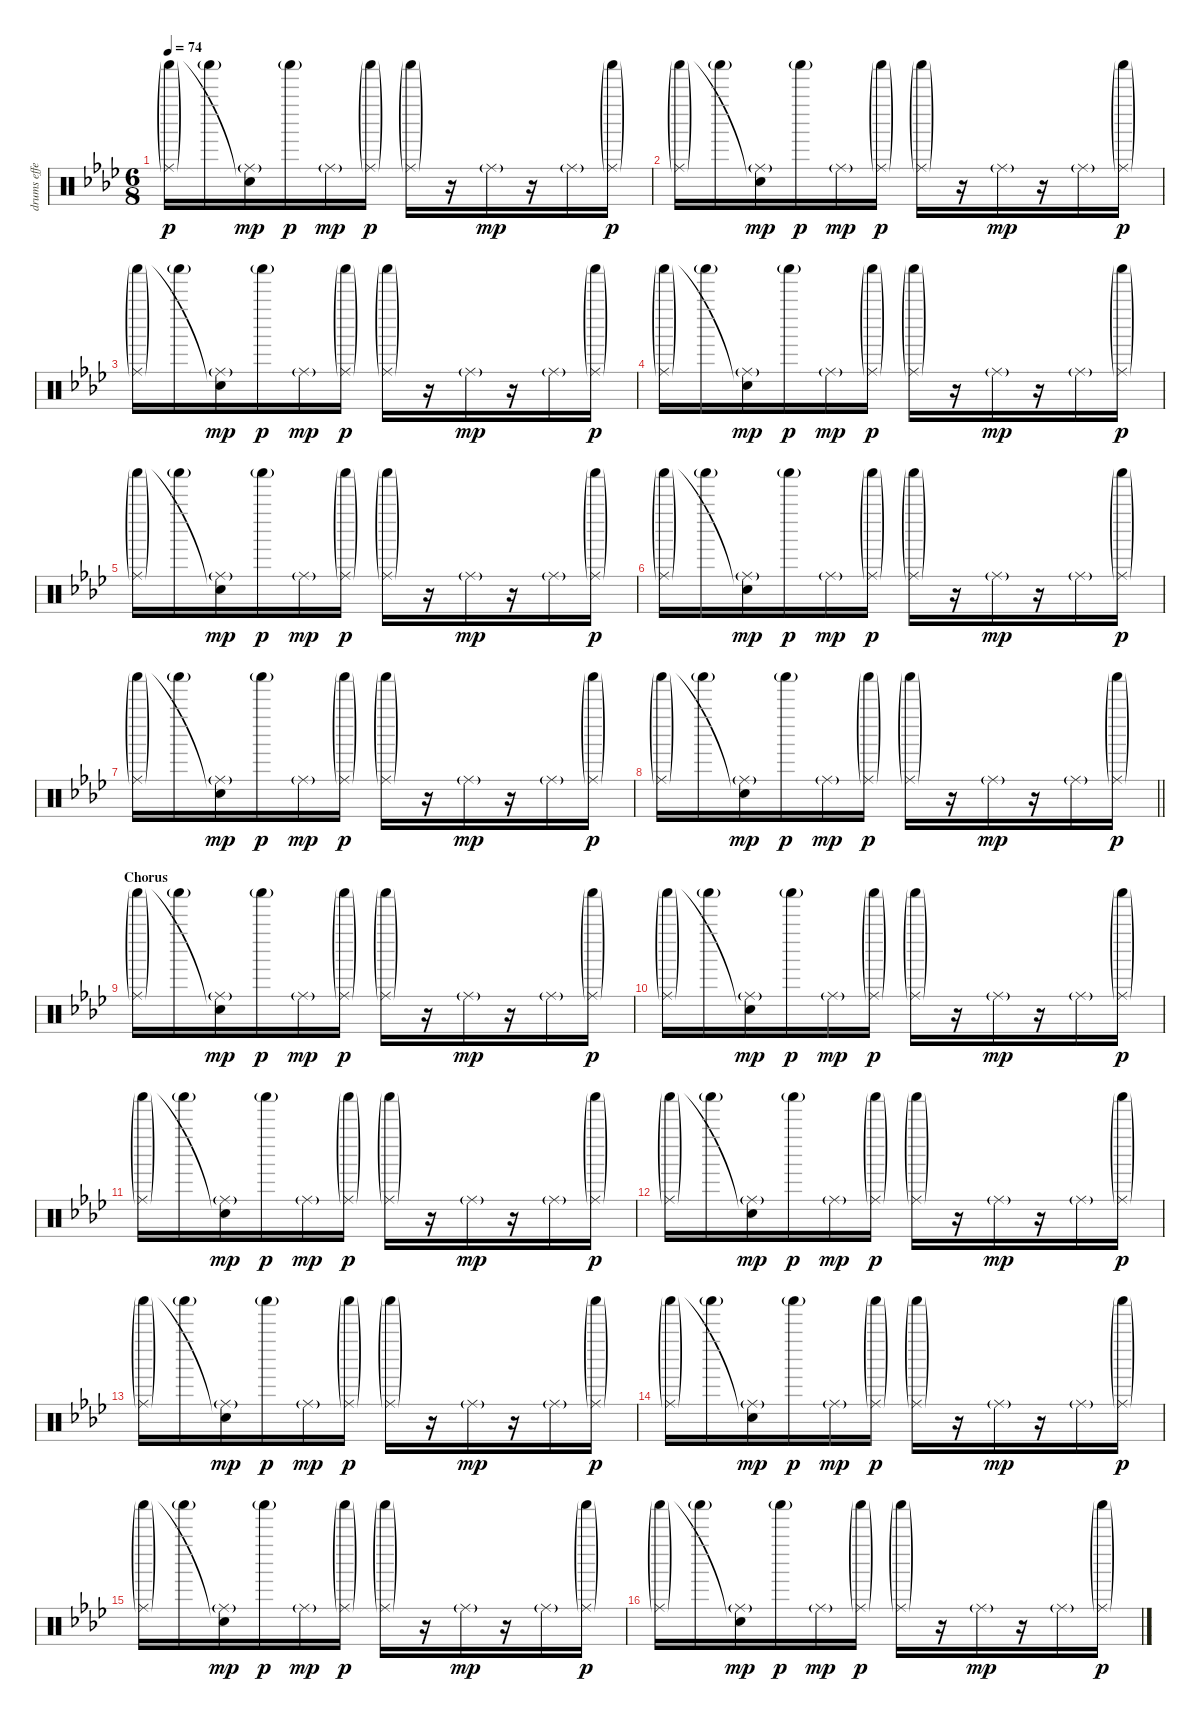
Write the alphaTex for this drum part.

\track ("drums effect" "drums effe") {instrument percussion}
\staff {score}
\articulation defaults
\ts (6 8)
\tempo 74
\clef neutral
\ks ab
("Ride (middle)"{g} "Shaker (hit)"{g}).16{dy p} "Shaker (hit)"{g}.16 ("Ride (middle)"{g} "Snare (hit)"{t}).16{dy mp} "Shaker (hit)"{g}.16{dy p} "Ride (middle)"{g}.16{dy mp} ("Ride (middle)"{g} "Shaker (hit)"{g}).16{dy p} ("Ride (middle)"{g} "Shaker (hit)"{g}).16 r.16 "Ride (middle)"{g}.16{dy mp} r.16 "Ride (middle)"{g}.16 ("Ride (middle)"{g} "Shaker (hit)"{g}).16{dy p} |
("Ride (middle)"{g} "Shaker (hit)"{g}).16 "Shaker (hit)"{g}.16 ("Ride (middle)"{g} "Snare (hit)"{t}).16{dy mp} "Shaker (hit)"{g}.16{dy p} "Ride (middle)"{g}.16{dy mp} ("Ride (middle)"{g} "Shaker (hit)"{g}).16{dy p} ("Ride (middle)"{g} "Shaker (hit)"{g}).16 r.16 "Ride (middle)"{g}.16{dy mp} r.16 "Ride (middle)"{g}.16 ("Ride (middle)"{g} "Shaker (hit)"{g}).16{dy p} |
("Ride (middle)"{g} "Shaker (hit)"{g}).16 "Shaker (hit)"{g}.16 ("Ride (middle)"{g} "Snare (hit)"{t}).16{dy mp} "Shaker (hit)"{g}.16{dy p} "Ride (middle)"{g}.16{dy mp} ("Ride (middle)"{g} "Shaker (hit)"{g}).16{dy p} ("Ride (middle)"{g} "Shaker (hit)"{g}).16 r.16 "Ride (middle)"{g}.16{dy mp} r.16 "Ride (middle)"{g}.16 ("Ride (middle)"{g} "Shaker (hit)"{g}).16{dy p} |
("Ride (middle)"{g} "Shaker (hit)"{g}).16 "Shaker (hit)"{g}.16 ("Ride (middle)"{g} "Snare (hit)"{t}).16{dy mp} "Shaker (hit)"{g}.16{dy p} "Ride (middle)"{g}.16{dy mp} ("Ride (middle)"{g} "Shaker (hit)"{g}).16{dy p} ("Ride (middle)"{g} "Shaker (hit)"{g}).16 r.16 "Ride (middle)"{g}.16{dy mp} r.16 "Ride (middle)"{g}.16 ("Ride (middle)"{g} "Shaker (hit)"{g}).16{dy p} |
("Ride (middle)"{g} "Shaker (hit)"{g}).16 "Shaker (hit)"{g}.16 ("Ride (middle)"{g} "Snare (hit)"{t}).16{dy mp} "Shaker (hit)"{g}.16{dy p} "Ride (middle)"{g}.16{dy mp} ("Ride (middle)"{g} "Shaker (hit)"{g}).16{dy p} ("Ride (middle)"{g} "Shaker (hit)"{g}).16 r.16 "Ride (middle)"{g}.16{dy mp} r.16 "Ride (middle)"{g}.16 ("Ride (middle)"{g} "Shaker (hit)"{g}).16{dy p} |
("Ride (middle)"{g} "Shaker (hit)"{g}).16 "Shaker (hit)"{g}.16 ("Ride (middle)"{g} "Snare (hit)"{t}).16{dy mp} "Shaker (hit)"{g}.16{dy p} "Ride (middle)"{g}.16{dy mp} ("Ride (middle)"{g} "Shaker (hit)"{g}).16{dy p} ("Ride (middle)"{g} "Shaker (hit)"{g}).16 r.16 "Ride (middle)"{g}.16{dy mp} r.16 "Ride (middle)"{g}.16 ("Ride (middle)"{g} "Shaker (hit)"{g}).16{dy p} |
("Ride (middle)"{g} "Shaker (hit)"{g}).16 "Shaker (hit)"{g}.16 ("Ride (middle)"{g} "Snare (hit)"{t}).16{dy mp} "Shaker (hit)"{g}.16{dy p} "Ride (middle)"{g}.16{dy mp} ("Ride (middle)"{g} "Shaker (hit)"{g}).16{dy p} ("Ride (middle)"{g} "Shaker (hit)"{g}).16 r.16 "Ride (middle)"{g}.16{dy mp} r.16 "Ride (middle)"{g}.16 ("Ride (middle)"{g} "Shaker (hit)"{g}).16{dy p} |
\barLineRight lightlight
("Ride (middle)"{g} "Shaker (hit)"{g}).16 "Shaker (hit)"{g}.16 ("Ride (middle)"{g} "Snare (hit)"{t}).16{dy mp} "Shaker (hit)"{g}.16{dy p} "Ride (middle)"{g}.16{dy mp} ("Ride (middle)"{g} "Shaker (hit)"{g}).16{dy p} ("Ride (middle)"{g} "Shaker (hit)"{g}).16 r.16 "Ride (middle)"{g}.16{dy mp} r.16 "Ride (middle)"{g}.16 ("Ride (middle)"{g} "Shaker (hit)"{g}).16{dy p} |
\section ("" "Chorus")
("Ride (middle)"{g} "Shaker (hit)"{g}).16 "Shaker (hit)"{g}.16 ("Ride (middle)"{g} "Snare (hit)"{t}).16{dy mp} "Shaker (hit)"{g}.16{dy p} "Ride (middle)"{g}.16{dy mp} ("Ride (middle)"{g} "Shaker (hit)"{g}).16{dy p} ("Ride (middle)"{g} "Shaker (hit)"{g}).16 r.16 "Ride (middle)"{g}.16{dy mp} r.16 "Ride (middle)"{g}.16 ("Ride (middle)"{g} "Shaker (hit)"{g}).16{dy p} |
("Ride (middle)"{g} "Shaker (hit)"{g}).16 "Shaker (hit)"{g}.16 ("Ride (middle)"{g} "Snare (hit)"{t}).16{dy mp} "Shaker (hit)"{g}.16{dy p} "Ride (middle)"{g}.16{dy mp} ("Ride (middle)"{g} "Shaker (hit)"{g}).16{dy p} ("Ride (middle)"{g} "Shaker (hit)"{g}).16 r.16 "Ride (middle)"{g}.16{dy mp} r.16 "Ride (middle)"{g}.16 ("Ride (middle)"{g} "Shaker (hit)"{g}).16{dy p} |
("Ride (middle)"{g} "Shaker (hit)"{g}).16 "Shaker (hit)"{g}.16 ("Ride (middle)"{g} "Snare (hit)"{t}).16{dy mp} "Shaker (hit)"{g}.16{dy p} "Ride (middle)"{g}.16{dy mp} ("Ride (middle)"{g} "Shaker (hit)"{g}).16{dy p} ("Ride (middle)"{g} "Shaker (hit)"{g}).16 r.16 "Ride (middle)"{g}.16{dy mp} r.16 "Ride (middle)"{g}.16 ("Ride (middle)"{g} "Shaker (hit)"{g}).16{dy p} |
("Ride (middle)"{g} "Shaker (hit)"{g}).16 "Shaker (hit)"{g}.16 ("Ride (middle)"{g} "Snare (hit)"{t}).16{dy mp} "Shaker (hit)"{g}.16{dy p} "Ride (middle)"{g}.16{dy mp} ("Ride (middle)"{g} "Shaker (hit)"{g}).16{dy p} ("Ride (middle)"{g} "Shaker (hit)"{g}).16 r.16 "Ride (middle)"{g}.16{dy mp} r.16 "Ride (middle)"{g}.16 ("Ride (middle)"{g} "Shaker (hit)"{g}).16{dy p} |
("Ride (middle)"{g} "Shaker (hit)"{g}).16 "Shaker (hit)"{g}.16 ("Ride (middle)"{g} "Snare (hit)"{t}).16{dy mp} "Shaker (hit)"{g}.16{dy p} "Ride (middle)"{g}.16{dy mp} ("Ride (middle)"{g} "Shaker (hit)"{g}).16{dy p} ("Ride (middle)"{g} "Shaker (hit)"{g}).16 r.16 "Ride (middle)"{g}.16{dy mp} r.16 "Ride (middle)"{g}.16 ("Ride (middle)"{g} "Shaker (hit)"{g}).16{dy p} |
("Ride (middle)"{g} "Shaker (hit)"{g}).16 "Shaker (hit)"{g}.16 ("Ride (middle)"{g} "Snare (hit)"{t}).16{dy mp} "Shaker (hit)"{g}.16{dy p} "Ride (middle)"{g}.16{dy mp} ("Ride (middle)"{g} "Shaker (hit)"{g}).16{dy p} ("Ride (middle)"{g} "Shaker (hit)"{g}).16 r.16 "Ride (middle)"{g}.16{dy mp} r.16 "Ride (middle)"{g}.16 ("Ride (middle)"{g} "Shaker (hit)"{g}).16{dy p} |
("Ride (middle)"{g} "Shaker (hit)"{g}).16 "Shaker (hit)"{g}.16 ("Ride (middle)"{g} "Snare (hit)"{t}).16{dy mp} "Shaker (hit)"{g}.16{dy p} "Ride (middle)"{g}.16{dy mp} ("Ride (middle)"{g} "Shaker (hit)"{g}).16{dy p} ("Ride (middle)"{g} "Shaker (hit)"{g}).16 r.16 "Ride (middle)"{g}.16{dy mp} r.16 "Ride (middle)"{g}.16 ("Ride (middle)"{g} "Shaker (hit)"{g}).16{dy p} |
("Ride (middle)"{g} "Shaker (hit)"{g}).16 "Shaker (hit)"{g}.16 ("Ride (middle)"{g} "Snare (hit)"{t}).16{dy mp} "Shaker (hit)"{g}.16{dy p} "Ride (middle)"{g}.16{dy mp} ("Ride (middle)"{g} "Shaker (hit)"{g}).16{dy p} ("Ride (middle)"{g} "Shaker (hit)"{g}).16 r.16 "Ride (middle)"{g}.16{dy mp} r.16 "Ride (middle)"{g}.16 ("Ride (middle)"{g} "Shaker (hit)"{g}).16{dy p}
